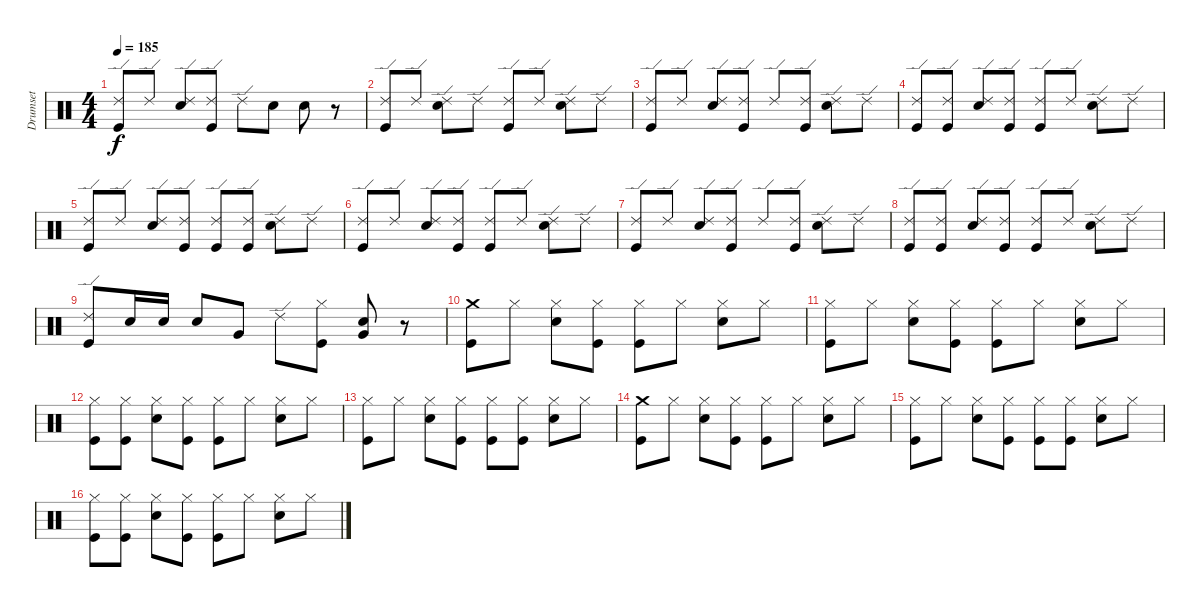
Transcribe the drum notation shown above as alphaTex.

\track ("Drumset" "Drumset") {instrument percussion}
\staff {score}
\articulation defaults
\ts (4 4)
\tempo 185
\clef neutral
\ks c
("Kick (hit)" "Ride (edge) 2").8{dy f} "Ride (edge) 2".8 ("Snare (hit) 2" "Ride (edge) 2").8 ("Kick (hit)" "Ride (edge) 2").8 "Ride (edge) 2".8 "Snare (hit) 2".8 "Snare (hit) 2".8 r.8 |
("Kick (hit)" "Ride (edge) 2").8 "Ride (edge) 2".8 ("Snare (hit) 2" "Ride (edge) 2").8 "Ride (edge) 2".8 ("Kick (hit)" "Ride (edge) 2").8 "Ride (edge) 2".8 ("Snare (hit) 2" "Ride (edge) 2").8 "Ride (edge) 2".8 |
("Kick (hit)" "Ride (edge) 2").8 "Ride (edge) 2".8 ("Snare (hit) 2" "Ride (edge) 2").8 ("Kick (hit)" "Ride (edge) 2").8 "Ride (edge) 2".8 ("Kick (hit)" "Ride (edge) 2").8 ("Snare (hit) 2" "Ride (edge) 2").8 "Ride (edge) 2".8 |
("Kick (hit)" "Ride (edge) 2").8 ("Kick (hit)" "Ride (edge) 2").8 ("Snare (hit) 2" "Ride (edge) 2").8 ("Kick (hit)" "Ride (edge) 2").8 ("Kick (hit)" "Ride (edge) 2").8 "Ride (edge) 2".8 ("Snare (hit) 2" "Ride (edge) 2").8 "Ride (edge) 2".8 |
("Kick (hit)" "Ride (edge) 2").8 "Ride (edge) 2".8 ("Snare (hit) 2" "Ride (edge) 2").8 ("Kick (hit)" "Ride (edge) 2").8 ("Kick (hit)" "Ride (edge) 2").8 ("Kick (hit)" "Ride (edge) 2").8 ("Snare (hit) 2" "Ride (edge) 2").8 "Ride (edge) 2".8 |
("Kick (hit)" "Ride (edge) 2").8 "Ride (edge) 2".8 ("Snare (hit) 2" "Ride (edge) 2").8 ("Kick (hit)" "Ride (edge) 2").8 ("Kick (hit)" "Ride (edge) 2").8 "Ride (edge) 2".8 ("Snare (hit) 2" "Ride (edge) 2").8 "Ride (edge) 2".8 |
("Kick (hit)" "Ride (edge) 2").8 "Ride (edge) 2".8 ("Snare (hit) 2" "Ride (edge) 2").8 ("Kick (hit)" "Ride (edge) 2").8 "Ride (edge) 2".8 ("Kick (hit)" "Ride (edge) 2").8 ("Snare (hit) 2" "Ride (edge) 2").8 "Ride (edge) 2".8 |
("Kick (hit)" "Ride (edge) 2").8 ("Kick (hit)" "Ride (edge) 2").8 ("Snare (hit) 2" "Ride (edge) 2").8 ("Kick (hit)" "Ride (edge) 2").8 ("Kick (hit)" "Ride (edge) 2").8 "Ride (edge) 2".8 ("Snare (hit) 2" "Ride (edge) 2").8 "Ride (edge) 2".8 |
("Kick (hit)" "Ride (edge) 2").8 "Snare (hit) 2".16 "Snare (hit) 2".16 "Snare (hit) 2".8 "Very Low Tom (hit)".8 "Ride (edge) 2".8 ("Kick (hit)" "Hi-Hat (closed)").8 ("Very Low Tom (hit)" "Snare (hit) 2").8 r.8 |
("Crash medium (hit)" "Kick (hit)").8 "Hi-Hat (closed)".8 ("Hi-Hat (closed)" "Snare (hit) 2").8 ("Hi-Hat (closed)" "Kick (hit)").8 ("Hi-Hat (closed)" "Kick (hit)").8 "Hi-Hat (closed)".8 ("Hi-Hat (closed)" "Snare (hit) 2").8 "Hi-Hat (closed)".8 |
("Hi-Hat (closed)" "Kick (hit)").8 "Hi-Hat (closed)".8 ("Hi-Hat (closed)" "Snare (hit) 2").8 ("Hi-Hat (closed)" "Kick (hit)").8 ("Hi-Hat (closed)" "Kick (hit)").8 "Hi-Hat (closed)".8 ("Hi-Hat (closed)" "Snare (hit) 2").8 "Hi-Hat (closed)".8 |
("Hi-Hat (closed)" "Kick (hit)").8 ("Hi-Hat (closed)" "Kick (hit)").8 ("Hi-Hat (closed)" "Snare (hit) 2").8 ("Hi-Hat (closed)" "Kick (hit)").8 ("Hi-Hat (closed)" "Kick (hit)").8 "Hi-Hat (closed)".8 ("Hi-Hat (closed)" "Snare (hit) 2").8 "Hi-Hat (closed)".8 |
("Hi-Hat (closed)" "Kick (hit)").8 "Hi-Hat (closed)".8 ("Hi-Hat (closed)" "Snare (hit) 2").8 ("Hi-Hat (closed)" "Kick (hit)").8 ("Hi-Hat (closed)" "Kick (hit)").8 ("Hi-Hat (closed)" "Kick (hit)").8 ("Hi-Hat (closed)" "Snare (hit) 2").8 "Hi-Hat (closed)".8 |
("Crash medium (hit)" "Kick (hit)").8 "Hi-Hat (closed)".8 ("Hi-Hat (closed)" "Snare (hit) 2").8 ("Hi-Hat (closed)" "Kick (hit)").8 ("Hi-Hat (closed)" "Kick (hit)").8 "Hi-Hat (closed)".8 ("Hi-Hat (closed)" "Snare (hit) 2").8 "Hi-Hat (closed)".8 |
("Hi-Hat (closed)" "Kick (hit)").8 "Hi-Hat (closed)".8 ("Hi-Hat (closed)" "Snare (hit) 2").8 ("Hi-Hat (closed)" "Kick (hit)").8 ("Hi-Hat (closed)" "Kick (hit)").8 ("Hi-Hat (closed)" "Kick (hit)").8 ("Hi-Hat (closed)" "Snare (hit) 2").8 "Hi-Hat (closed)".8 |
("Hi-Hat (closed)" "Kick (hit)").8 ("Hi-Hat (closed)" "Kick (hit)").8 ("Hi-Hat (closed)" "Snare (hit) 2").8 ("Hi-Hat (closed)" "Kick (hit)").8 ("Hi-Hat (closed)" "Kick (hit)").8 "Hi-Hat (closed)".8 ("Hi-Hat (closed)" "Snare (hit) 2").8 "Hi-Hat (closed)".8
